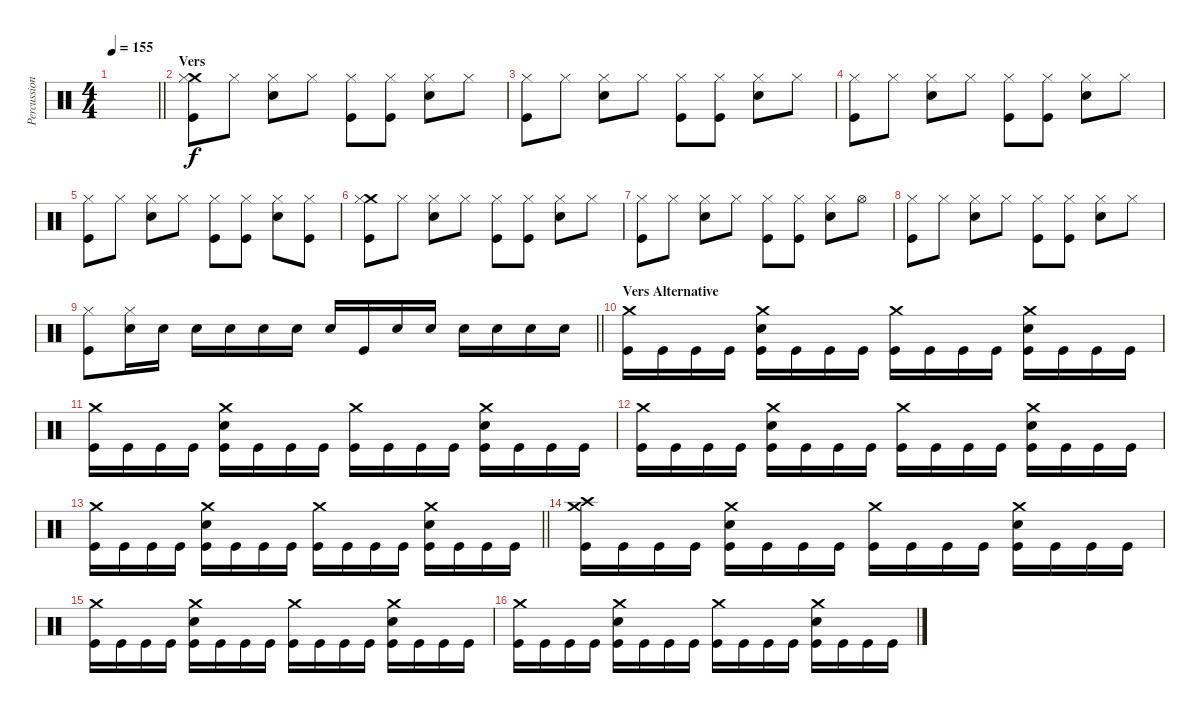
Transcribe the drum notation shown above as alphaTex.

\track ("Percussion" "Percussion") {instrument percussion}
\staff {score}
\articulation defaults
\ts (4 4)
\tempo 155
\clef neutral
\barLineRight lightlight
\ks c
|
\section ("" "Vers")
("Crash medium (hit)" "Hi-Hat (closed)" "Kick (hit)").8 "Hi-Hat (closed)".8 ("Hi-Hat (closed)" "Electric Snare (hit)").8 "Hi-Hat (closed)".8 ("Hi-Hat (closed)" "Kick (hit)").8 ("Hi-Hat (closed)" "Kick (hit)").8 ("Hi-Hat (closed)" "Electric Snare (hit)").8 "Hi-Hat (closed)".8 |
("Hi-Hat (closed)" "Kick (hit)").8 "Hi-Hat (closed)".8 ("Hi-Hat (closed)" "Electric Snare (hit)").8 "Hi-Hat (closed)".8 ("Hi-Hat (closed)" "Kick (hit)").8 ("Hi-Hat (closed)" "Kick (hit)").8 ("Hi-Hat (closed)" "Electric Snare (hit)").8 "Hi-Hat (closed)".8 |
("Hi-Hat (closed)" "Kick (hit)").8 "Hi-Hat (closed)".8 ("Hi-Hat (closed)" "Electric Snare (hit)").8 "Hi-Hat (closed)".8 ("Hi-Hat (closed)" "Kick (hit)").8 ("Hi-Hat (closed)" "Kick (hit)").8 ("Hi-Hat (closed)" "Electric Snare (hit)").8 "Hi-Hat (closed)".8 |
("Hi-Hat (closed)" "Kick (hit)").8 "Hi-Hat (closed)".8 ("Hi-Hat (closed)" "Electric Snare (hit)").8 "Hi-Hat (closed)".8 ("Hi-Hat (closed)" "Kick (hit)").8 ("Hi-Hat (closed)" "Kick (hit)").8 ("Hi-Hat (closed)" "Electric Snare (hit)").8 ("Hi-Hat (closed)" "Kick (hit)").8 |
("Crash medium (hit)" "Hi-Hat (closed)" "Kick (hit)").8 "Hi-Hat (closed)".8 ("Hi-Hat (closed)" "Electric Snare (hit)").8 "Hi-Hat (closed)".8 ("Hi-Hat (closed)" "Kick (hit)").8 ("Hi-Hat (closed)" "Kick (hit)").8 ("Hi-Hat (closed)" "Electric Snare (hit)").8 "Hi-Hat (closed)".8 |
("Hi-Hat (closed)" "Kick (hit)").8 "Hi-Hat (closed)".8 ("Hi-Hat (closed)" "Electric Snare (hit)").8 "Hi-Hat (closed)".8 ("Hi-Hat (closed)" "Kick (hit)").8 ("Hi-Hat (closed)" "Kick (hit)").8 ("Hi-Hat (closed)" "Electric Snare (hit)").8 "Hi-Hat (open)".8 |
("Hi-Hat (closed)" "Kick (hit)").8 "Hi-Hat (closed)".8 ("Hi-Hat (closed)" "Electric Snare (hit)").8 "Hi-Hat (closed)".8 ("Hi-Hat (closed)" "Kick (hit)").8 ("Hi-Hat (closed)" "Kick (hit)").8 ("Hi-Hat (closed)" "Electric Snare (hit)").8 "Hi-Hat (closed)".8 |
\barLineRight lightlight
("Hi-Hat (closed)" "Kick (hit)").8 ("Hi-Hat (closed)" "Electric Snare (hit)").16 "Electric Snare (hit)".16 "Electric Snare (hit)".16 "Electric Snare (hit)".16 "Electric Snare (hit)".16 "Electric Snare (hit)".16 "Electric Snare (hit)".16 "Kick (hit)".16 "Electric Snare (hit)".16 "Electric Snare (hit)".16 "Electric Snare (hit)".16 "Electric Snare (hit)".16 "Electric Snare (hit)".16 "Electric Snare (hit)".16 |
\section ("" "Vers Alternative")
("Crash medium (hit)" "Kick (hit)").16 "Kick (hit)".16 "Kick (hit)".16 "Kick (hit)".16 ("Crash medium (hit)" "Electric Snare (hit)" "Kick (hit)").16 "Kick (hit)".16 "Kick (hit)".16 "Kick (hit)".16 ("Crash medium (hit)" "Kick (hit)").16 "Kick (hit)".16 "Kick (hit)".16 "Kick (hit)".16 ("Crash medium (hit)" "Electric Snare (hit)" "Kick (hit)").16 "Kick (hit)".16 "Kick (hit)".16 "Kick (hit)".16 |
("Crash medium (hit)" "Kick (hit)").16 "Kick (hit)".16 "Kick (hit)".16 "Kick (hit)".16 ("Crash medium (hit)" "Electric Snare (hit)" "Kick (hit)").16 "Kick (hit)".16 "Kick (hit)".16 "Kick (hit)".16 ("Crash medium (hit)" "Kick (hit)").16 "Kick (hit)".16 "Kick (hit)".16 "Kick (hit)".16 ("Crash medium (hit)" "Electric Snare (hit)" "Kick (hit)").16 "Kick (hit)".16 "Kick (hit)".16 "Kick (hit)".16 |
("Crash medium (hit)" "Kick (hit)").16 "Kick (hit)".16 "Kick (hit)".16 "Kick (hit)".16 ("Crash medium (hit)" "Electric Snare (hit)" "Kick (hit)").16 "Kick (hit)".16 "Kick (hit)".16 "Kick (hit)".16 ("Crash medium (hit)" "Kick (hit)").16 "Kick (hit)".16 "Kick (hit)".16 "Kick (hit)".16 ("Crash medium (hit)" "Electric Snare (hit)" "Kick (hit)").16 "Kick (hit)".16 "Kick (hit)".16 "Kick (hit)".16 |
\barLineRight lightlight
("Crash medium (hit)" "Kick (hit)").16 "Kick (hit)".16 "Kick (hit)".16 "Kick (hit)".16 ("Crash medium (hit)" "Electric Snare (hit)" "Kick (hit)").16 "Kick (hit)".16 "Kick (hit)".16 "Kick (hit)".16 ("Crash medium (hit)" "Kick (hit)").16 "Kick (hit)".16 "Kick (hit)".16 "Kick (hit)".16 ("Crash medium (hit)" "Electric Snare (hit)" "Kick (hit)").16 "Kick (hit)".16 "Kick (hit)".16 "Kick (hit)".16 |
("Crash medium (hit)" "Crash high (hit)" "Kick (hit)").16 "Kick (hit)".16 "Kick (hit)".16 "Kick (hit)".16 ("Crash medium (hit)" "Electric Snare (hit)" "Kick (hit)").16 "Kick (hit)".16 "Kick (hit)".16 "Kick (hit)".16 ("Crash medium (hit)" "Kick (hit)").16 "Kick (hit)".16 "Kick (hit)".16 "Kick (hit)".16 ("Crash medium (hit)" "Electric Snare (hit)" "Kick (hit)").16 "Kick (hit)".16 "Kick (hit)".16 "Kick (hit)".16 |
("Crash medium (hit)" "Kick (hit)").16 "Kick (hit)".16 "Kick (hit)".16 "Kick (hit)".16 ("Crash medium (hit)" "Electric Snare (hit)" "Kick (hit)").16 "Kick (hit)".16 "Kick (hit)".16 "Kick (hit)".16 ("Crash medium (hit)" "Kick (hit)").16 "Kick (hit)".16 "Kick (hit)".16 "Kick (hit)".16 ("Crash medium (hit)" "Electric Snare (hit)" "Kick (hit)").16 "Kick (hit)".16 "Kick (hit)".16 "Kick (hit)".16 |
("Crash medium (hit)" "Kick (hit)").16 "Kick (hit)".16 "Kick (hit)".16 "Kick (hit)".16 ("Crash medium (hit)" "Electric Snare (hit)" "Kick (hit)").16 "Kick (hit)".16 "Kick (hit)".16 "Kick (hit)".16 ("Crash medium (hit)" "Kick (hit)").16 "Kick (hit)".16 "Kick (hit)".16 "Kick (hit)".16 ("Crash medium (hit)" "Electric Snare (hit)" "Kick (hit)").16 "Kick (hit)".16 "Kick (hit)".16 "Kick (hit)".16
